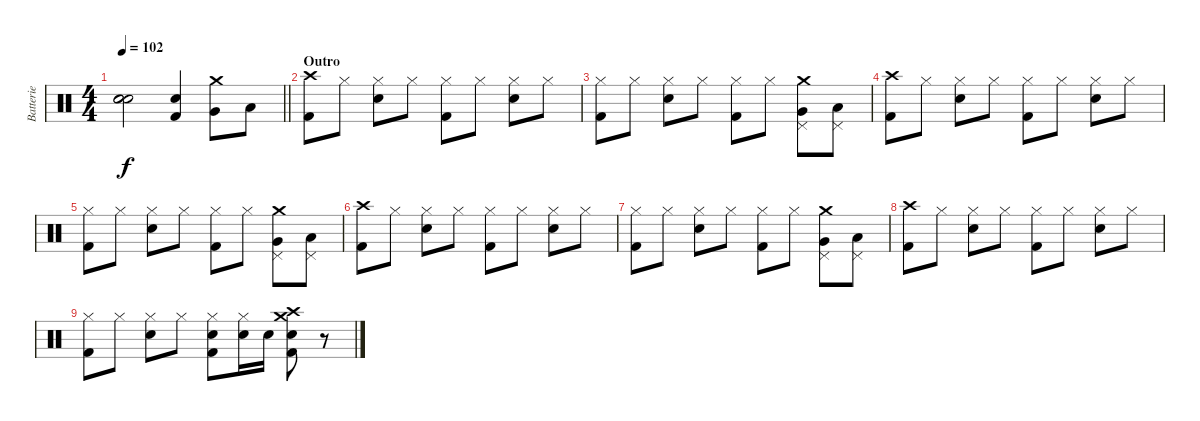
\track ("Batterie" "Batterie") {instrument percussion}
\staff {score}
\articulation defaults
\ts (4 4)
\tempo 102
\clef neutral
\barLineRight lightlight
\ks c
("Snare (hit)"{t} "Snare (hit)"{t} "Snare (hit)"{t}).2{dy f} ("Snare (hit) 2" "Kick (hit) 2").4 ("Crash medium (hit)" "Very Low Tom (hit)").8 "Low Floor Tom (hit)".8 |
\section ("" "Outro")
("Crash high (hit)" "Kick (hit) 2").8 "Hi-Hat (closed)".8 ("Hi-Hat (closed)" "Snare (hit) 2").8 "Hi-Hat (closed)".8 ("Hi-Hat (closed)" "Kick (hit) 2").8 "Hi-Hat (closed)".8 ("Hi-Hat (closed)" "Snare (hit) 2").8 "Hi-Hat (closed)".8 |
("Hi-Hat (closed)" "Kick (hit) 2").8 "Hi-Hat (closed)".8 ("Hi-Hat (closed)" "Snare (hit) 2").8 "Hi-Hat (closed)".8 ("Hi-Hat (closed)" "Kick (hit) 2").8 "Hi-Hat (closed)".8 ("Pedal Hi-Hat (hit)" "Crash medium (hit)" "Very Low Tom (hit)").8 ("Pedal Hi-Hat (hit)" "Low Floor Tom (hit)").8 |
("Crash high (hit)" "Kick (hit) 2").8 "Hi-Hat (closed)".8 ("Hi-Hat (closed)" "Snare (hit) 2").8 "Hi-Hat (closed)".8 ("Hi-Hat (closed)" "Kick (hit) 2").8 "Hi-Hat (closed)".8 ("Hi-Hat (closed)" "Snare (hit) 2").8 "Hi-Hat (closed)".8 |
("Hi-Hat (closed)" "Kick (hit) 2").8 "Hi-Hat (closed)".8 ("Hi-Hat (closed)" "Snare (hit) 2").8 "Hi-Hat (closed)".8 ("Hi-Hat (closed)" "Kick (hit) 2").8 "Hi-Hat (closed)".8 ("Pedal Hi-Hat (hit)" "Crash medium (hit)" "Very Low Tom (hit)").8 ("Pedal Hi-Hat (hit)" "Low Floor Tom (hit)").8 |
("Crash high (hit)" "Kick (hit) 2").8 "Hi-Hat (closed)".8 ("Hi-Hat (closed)" "Snare (hit) 2").8 "Hi-Hat (closed)".8 ("Hi-Hat (closed)" "Kick (hit) 2").8 "Hi-Hat (closed)".8 ("Hi-Hat (closed)" "Snare (hit) 2").8 "Hi-Hat (closed)".8 |
("Hi-Hat (closed)" "Kick (hit) 2").8 "Hi-Hat (closed)".8 ("Hi-Hat (closed)" "Snare (hit) 2").8 "Hi-Hat (closed)".8 ("Hi-Hat (closed)" "Kick (hit) 2").8 "Hi-Hat (closed)".8 ("Pedal Hi-Hat (hit)" "Crash medium (hit)" "Very Low Tom (hit)").8 ("Pedal Hi-Hat (hit)" "Low Floor Tom (hit)").8 |
("Crash high (hit)" "Kick (hit) 2").8 "Hi-Hat (closed)".8 ("Hi-Hat (closed)" "Snare (hit) 2").8 "Hi-Hat (closed)".8 ("Hi-Hat (closed)" "Kick (hit) 2").8 "Hi-Hat (closed)".8 ("Hi-Hat (closed)" "Snare (hit) 2").8 "Hi-Hat (closed)".8 |
("Hi-Hat (closed)" "Kick (hit) 2").8 "Hi-Hat (closed)".8 ("Hi-Hat (closed)" "Snare (hit) 2").8 "Hi-Hat (closed)".8 ("Hi-Hat (closed)" "Snare (hit) 2" "Kick (hit) 2").8 ("Hi-Hat (closed)" "Snare (hit) 2").16 "Snare (hit) 2".16 ("Crash high (hit)" "Crash medium (hit)" "Snare (hit) 2" "Kick (hit) 2").8 r.8
